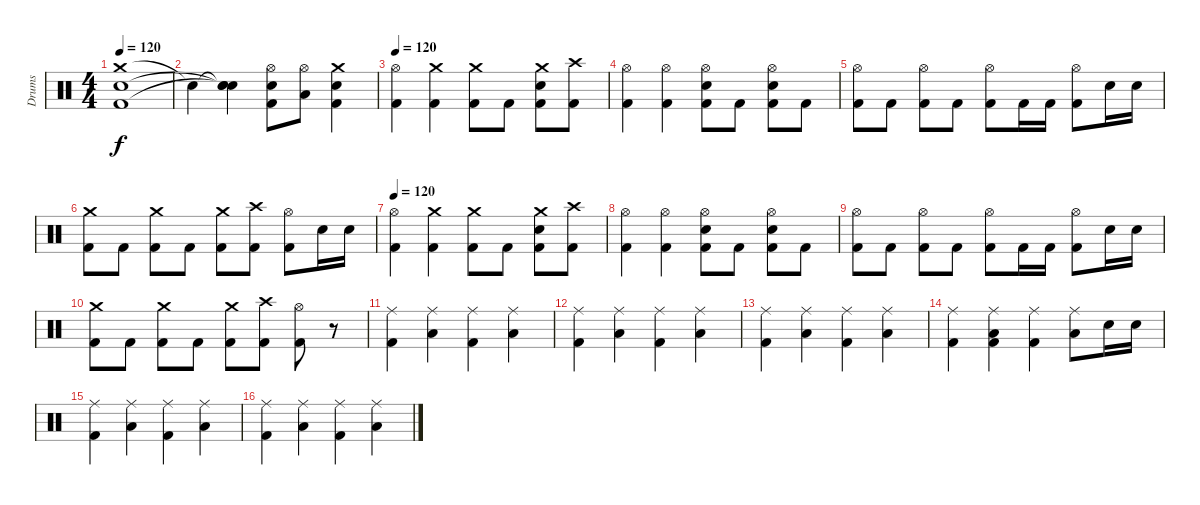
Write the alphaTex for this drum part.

\track ("Drums" "Drums") {instrument percussion}
\staff {score}
\articulation defaults
\ts (4 4)
\tempo 120
\clef neutral
\ks c
("Crash medium (hit)" "Snare (hit) 2" "Kick (hit) 2").1{dy f} |
"Snare (hit)"{t}.4 ("Snare (hit)"{t} "Snare (hit)"{t} "Snare (hit)"{t}).4 ("Hi-Hat (open)" "Snare (hit) 2" "Kick (hit) 2").8 ("Hi-Hat (open)" "Low Floor Tom (hit)").8 ("Crash medium (hit)" "Snare (hit) 2" "Kick (hit) 2").4 |
\tempo 120
("Hi-Hat (open)" "Kick (hit) 2").4 ("Crash medium (hit)" "Kick (hit) 2").4 ("Crash medium (hit)" "Kick (hit) 2").8 "Kick (hit) 2".8 ("Crash medium (hit)" "Snare (hit) 2" "Kick (hit) 2").8 ("Crash high (hit)" "Kick (hit) 2").8 |
("Hi-Hat (open)" "Kick (hit) 2").4 ("Hi-Hat (open)" "Kick (hit) 2").4 ("Hi-Hat (open)" "Snare (hit) 2" "Kick (hit) 2").8 "Kick (hit) 2".8 ("Hi-Hat (open)" "Snare (hit) 2" "Kick (hit) 2").8 "Kick (hit) 2".8 |
("Hi-Hat (open)" "Kick (hit) 2").8 "Kick (hit) 2".8 ("Hi-Hat (open)" "Kick (hit) 2").8 "Kick (hit) 2".8 ("Hi-Hat (open)" "Kick (hit) 2").8 "Kick (hit) 2".16 "Kick (hit) 2".16 ("Hi-Hat (open)" "Kick (hit) 2").8 "Snare (hit) 2".16 "Snare (hit) 2".16 |
("Crash medium (hit)" "Kick (hit) 2").8 "Kick (hit) 2".8 ("Crash medium (hit)" "Kick (hit) 2").8 "Kick (hit) 2".8 ("Crash medium (hit)" "Kick (hit) 2").8 ("Crash high (hit)" "Kick (hit) 2").8 ("Hi-Hat (open)" "Kick (hit) 2").8 "Snare (hit) 2".16 "Snare (hit) 2".16 |
\tempo 120
("Hi-Hat (open)" "Kick (hit) 2").4 ("Crash medium (hit)" "Kick (hit) 2").4 ("Crash medium (hit)" "Kick (hit) 2").8 "Kick (hit) 2".8 ("Crash medium (hit)" "Snare (hit) 2" "Kick (hit) 2").8 ("Crash high (hit)" "Kick (hit) 2").8 |
("Hi-Hat (open)" "Kick (hit) 2").4 ("Hi-Hat (open)" "Kick (hit) 2").4 ("Hi-Hat (open)" "Snare (hit) 2" "Kick (hit) 2").8 "Kick (hit) 2".8 ("Hi-Hat (open)" "Snare (hit) 2" "Kick (hit) 2").8 "Kick (hit) 2".8 |
("Hi-Hat (open)" "Kick (hit) 2").8 "Kick (hit) 2".8 ("Hi-Hat (open)" "Kick (hit) 2").8 "Kick (hit) 2".8 ("Hi-Hat (open)" "Kick (hit) 2").8 "Kick (hit) 2".16 "Kick (hit) 2".16 ("Hi-Hat (open)" "Kick (hit) 2").8 "Snare (hit) 2".16 "Snare (hit) 2".16 |
("Crash medium (hit)" "Kick (hit) 2").8 "Kick (hit) 2".8 ("Crash medium (hit)" "Kick (hit) 2").8 "Kick (hit) 2".8 ("Crash medium (hit)" "Kick (hit) 2").8 ("Crash high (hit)" "Kick (hit) 2").8 ("Hi-Hat (open)" "Kick (hit) 2").8 r.8 |
("Ride (middle)" "Kick (hit) 2").4 ("Ride (middle)" "Low Floor Tom (hit)").4 ("Ride (middle)" "Kick (hit) 2").4 ("Ride (middle)" "Low Floor Tom (hit)").4 |
("Ride (middle)" "Kick (hit) 2").4 ("Ride (middle)" "Low Floor Tom (hit)").4 ("Ride (middle)" "Kick (hit) 2").4 ("Ride (middle)" "Low Floor Tom (hit)").4 |
("Ride (middle)" "Kick (hit) 2").4 ("Ride (middle)" "Low Floor Tom (hit)").4 ("Ride (middle)" "Kick (hit) 2").4 ("Ride (middle)" "Low Floor Tom (hit)").4 |
("Ride (middle)" "Kick (hit) 2").4 ("Ride (middle)" "Low Floor Tom (hit)" "Kick (hit) 2").4 ("Ride (middle)" "Kick (hit) 2").4 ("Ride (middle)" "Low Floor Tom (hit)").8 "Snare (hit) 2".16 "Snare (hit) 2".16 |
("Ride (middle)" "Kick (hit) 2").4 ("Ride (middle)" "Low Floor Tom (hit)").4 ("Ride (middle)" "Kick (hit) 2").4 ("Ride (middle)" "Low Floor Tom (hit)").4 |
("Ride (middle)" "Kick (hit) 2").4 ("Ride (middle)" "Low Floor Tom (hit)").4 ("Ride (middle)" "Kick (hit) 2").4 ("Ride (middle)" "Low Floor Tom (hit)").4
